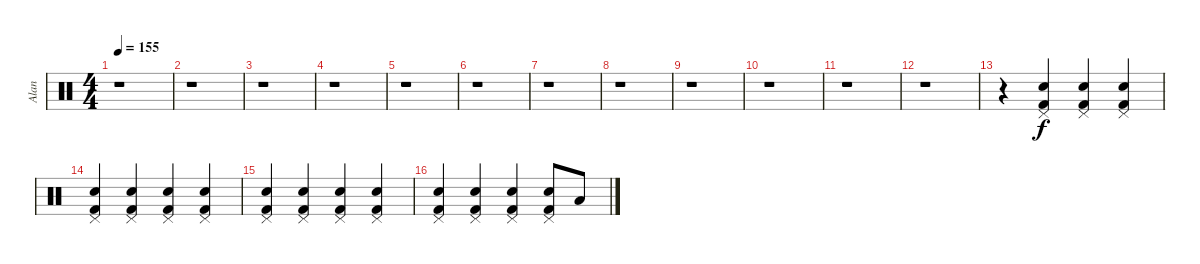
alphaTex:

\track ("Alan" "Alan") {instrument percussion}
\staff {score}
\articulation defaults
\ts (4 4)
\tempo 155
\clef neutral
\ks c
r.1{dy f} |
r.1 |
r.1 |
r.1 |
r.1 |
r.1 |
r.1 |
r.1 |
r.1 |
r.1 |
r.1 |
r.1 |
r.4{volume 3} ("Kick (hit) 2" "Snare (hit) 2" "Pedal Hi-Hat (hit)").4 ("Kick (hit) 2" "Snare (hit) 2" "Pedal Hi-Hat (hit)").4 ("Kick (hit) 2" "Snare (hit) 2" "Pedal Hi-Hat (hit)").4 |
("Kick (hit) 2" "Snare (hit) 2" "Pedal Hi-Hat (hit)").4{volume 5} ("Kick (hit) 2" "Snare (hit) 2" "Pedal Hi-Hat (hit)").4 ("Kick (hit) 2" "Snare (hit) 2" "Pedal Hi-Hat (hit)").4 ("Kick (hit) 2" "Snare (hit) 2" "Pedal Hi-Hat (hit)").4 |
("Kick (hit) 2" "Snare (hit) 2" "Pedal Hi-Hat (hit)").4{volume 8} ("Kick (hit) 2" "Snare (hit) 2" "Pedal Hi-Hat (hit)").4 ("Kick (hit) 2" "Snare (hit) 2" "Pedal Hi-Hat (hit)").4 ("Kick (hit) 2" "Snare (hit) 2" "Pedal Hi-Hat (hit)").4 |
("Kick (hit) 2" "Snare (hit) 2" "Pedal Hi-Hat (hit)").4{volume 11} ("Kick (hit) 2" "Snare (hit) 2" "Pedal Hi-Hat (hit)").4 ("Kick (hit) 2" "Snare (hit) 2" "Pedal Hi-Hat (hit)").4 ("Kick (hit) 2" "Snare (hit) 2" "Pedal Hi-Hat (hit)").8 "Low Tom (hit)".8
